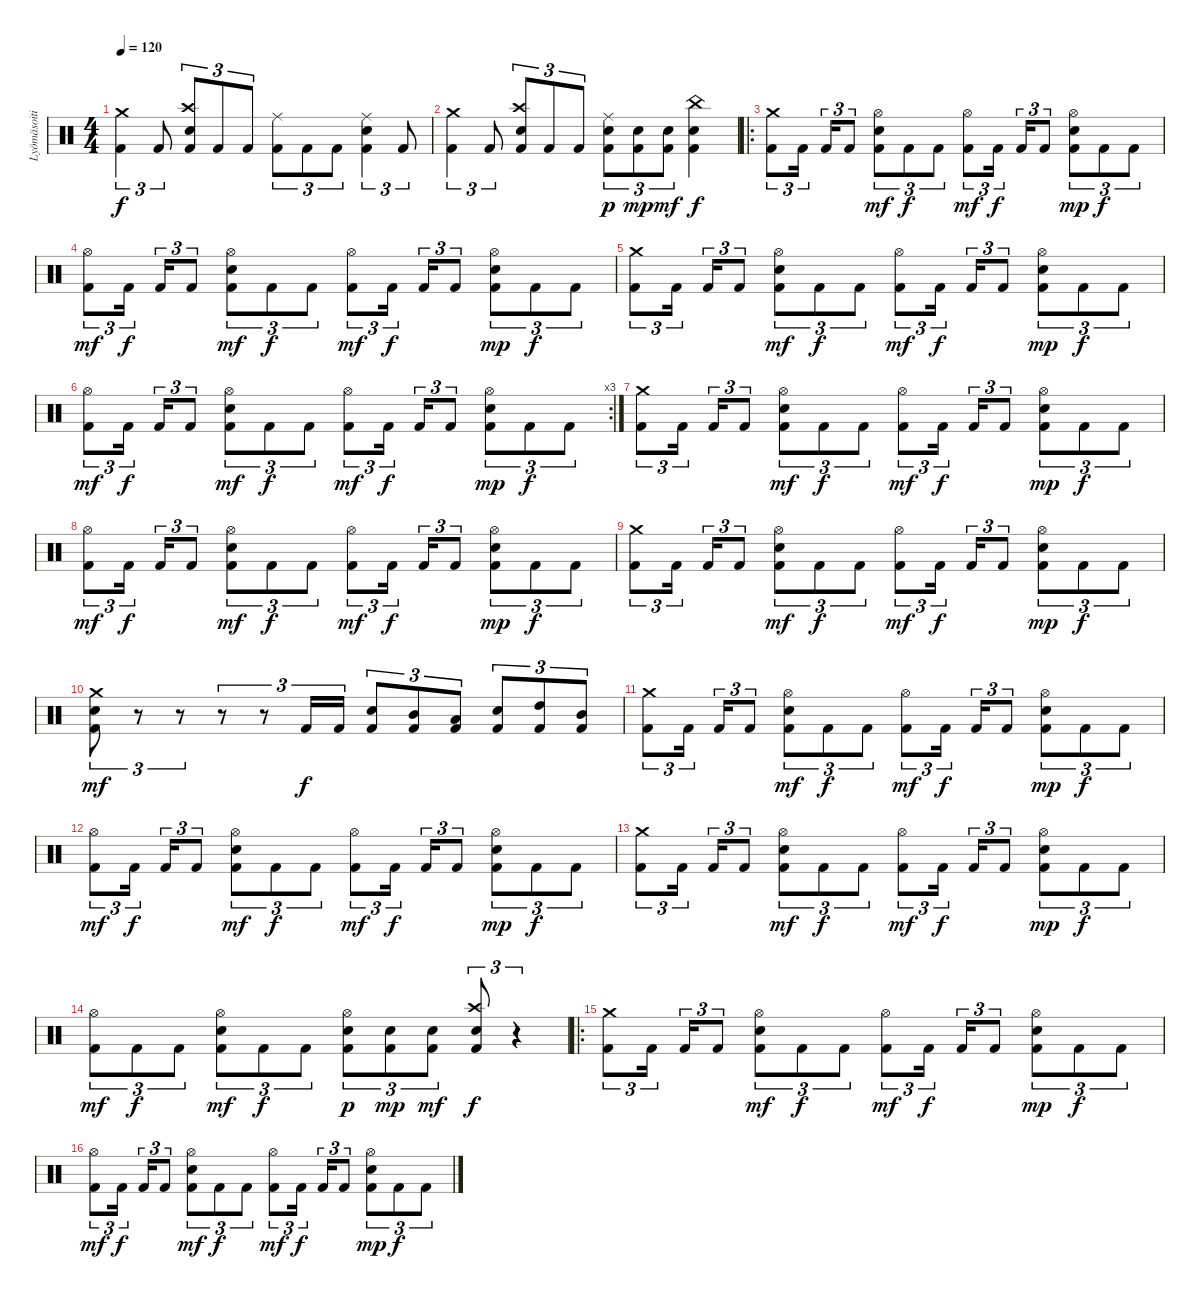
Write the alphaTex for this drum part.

\track ("Lyömäsoitin" "Lyömäsoiti") {instrument percussion}
\staff {score}
\articulation defaults
\ts (4 4)
\tempo 120
\clef neutral
\ks c
("Crash medium (hit)" "Kick (hit) 2").4{tu (3 2) dy f} "Kick (hit) 2".8{tu (3 2)} ("Crash high (hit)" "Snare (hit) 2" "Kick (hit) 2").8{tu (3 2)} "Kick (hit) 2".8{tu (3 2)} "Kick (hit) 2".8{tu (3 2)} ("Ride (middle)" "Kick (hit) 2").8{tu (3 2)} "Kick (hit) 2".8{tu (3 2)} "Kick (hit) 2".8{tu (3 2)} ("Ride (middle)" "Snare (hit) 2" "Kick (hit) 2").4{tu (3 2)} "Kick (hit) 2".8{tu (3 2)} |
("Crash medium (hit)" "Kick (hit) 2").4{tu (3 2)} "Kick (hit) 2".8{tu (3 2)} ("Crash high (hit)" "Snare (hit) 2" "Kick (hit) 2").8{tu (3 2)} "Kick (hit) 2".8{tu (3 2)} "Kick (hit) 2".8{tu (3 2)} ("Ride (middle)" "Snare (hit) 2" "Kick (hit) 2").8{tu (3 2) dy p} ("Snare (hit) 2" "Kick (hit) 2").8{tu (3 2) dy mp} ("Snare (hit) 2" "Kick (hit) 2").8{tu (3 2) dy mf} ("China (hit)" "Snare (hit) 2" "Kick (hit) 2").4{dy f} |
\ro
("Crash medium (hit)" "Kick (hit) 2").8{tu (3 2)} "Kick (hit) 2".16{tu (3 2)} "Kick (hit) 2".16{tu (3 2)} "Kick (hit) 2".8{tu (3 2)} ("Hi-Hat (open)" "Snare (hit) 2" "Kick (hit) 2").8{tu (3 2) dy mf} "Kick (hit) 2".8{tu (3 2) dy f} "Kick (hit) 2".8{tu (3 2)} ("Hi-Hat (open)" "Kick (hit) 2").8{tu (3 2) dy mf} "Kick (hit) 2".16{tu (3 2) dy f} "Kick (hit) 2".16{tu (3 2)} "Kick (hit) 2".8{tu (3 2)} ("Hi-Hat (open)" "Snare (hit) 2" "Kick (hit) 2").8{tu (3 2) dy mp} "Kick (hit) 2".8{tu (3 2) dy f} "Kick (hit) 2".8{tu (3 2)} |
("Hi-Hat (open)" "Kick (hit) 2").8{tu (3 2) dy mf} "Kick (hit) 2".16{tu (3 2) dy f} "Kick (hit) 2".16{tu (3 2)} "Kick (hit) 2".8{tu (3 2)} ("Hi-Hat (open)" "Snare (hit) 2" "Kick (hit) 2").8{tu (3 2) dy mf} "Kick (hit) 2".8{tu (3 2) dy f} "Kick (hit) 2".8{tu (3 2)} ("Hi-Hat (open)" "Kick (hit) 2").8{tu (3 2) dy mf} "Kick (hit) 2".16{tu (3 2) dy f} "Kick (hit) 2".16{tu (3 2)} "Kick (hit) 2".8{tu (3 2)} ("Hi-Hat (open)" "Snare (hit) 2" "Kick (hit) 2").8{tu (3 2) dy mp} "Kick (hit) 2".8{tu (3 2) dy f} "Kick (hit) 2".8{tu (3 2)} |
("Crash medium (hit)" "Kick (hit) 2").8{tu (3 2)} "Kick (hit) 2".16{tu (3 2)} "Kick (hit) 2".16{tu (3 2)} "Kick (hit) 2".8{tu (3 2)} ("Hi-Hat (open)" "Snare (hit) 2" "Kick (hit) 2").8{tu (3 2) dy mf} "Kick (hit) 2".8{tu (3 2) dy f} "Kick (hit) 2".8{tu (3 2)} ("Hi-Hat (open)" "Kick (hit) 2").8{tu (3 2) dy mf} "Kick (hit) 2".16{tu (3 2) dy f} "Kick (hit) 2".16{tu (3 2)} "Kick (hit) 2".8{tu (3 2)} ("Hi-Hat (open)" "Snare (hit) 2" "Kick (hit) 2").8{tu (3 2) dy mp} "Kick (hit) 2".8{tu (3 2) dy f} "Kick (hit) 2".8{tu (3 2)} |
\rc 3
("Hi-Hat (open)" "Kick (hit) 2").8{tu (3 2) dy mf} "Kick (hit) 2".16{tu (3 2) dy f} "Kick (hit) 2".16{tu (3 2)} "Kick (hit) 2".8{tu (3 2)} ("Hi-Hat (open)" "Snare (hit) 2" "Kick (hit) 2").8{tu (3 2) dy mf} "Kick (hit) 2".8{tu (3 2) dy f} "Kick (hit) 2".8{tu (3 2)} ("Hi-Hat (open)" "Kick (hit) 2").8{tu (3 2) dy mf} "Kick (hit) 2".16{tu (3 2) dy f} "Kick (hit) 2".16{tu (3 2)} "Kick (hit) 2".8{tu (3 2)} ("Hi-Hat (open)" "Snare (hit) 2" "Kick (hit) 2").8{tu (3 2) dy mp} "Kick (hit) 2".8{tu (3 2) dy f} "Kick (hit) 2".8{tu (3 2)} |
("Crash medium (hit)" "Kick (hit) 2").8{tu (3 2)} "Kick (hit) 2".16{tu (3 2)} "Kick (hit) 2".16{tu (3 2)} "Kick (hit) 2".8{tu (3 2)} ("Hi-Hat (open)" "Snare (hit) 2" "Kick (hit) 2").8{tu (3 2) dy mf} "Kick (hit) 2".8{tu (3 2) dy f} "Kick (hit) 2".8{tu (3 2)} ("Hi-Hat (open)" "Kick (hit) 2").8{tu (3 2) dy mf} "Kick (hit) 2".16{tu (3 2) dy f} "Kick (hit) 2".16{tu (3 2)} "Kick (hit) 2".8{tu (3 2)} ("Hi-Hat (open)" "Snare (hit) 2" "Kick (hit) 2").8{tu (3 2) dy mp} "Kick (hit) 2".8{tu (3 2) dy f} "Kick (hit) 2".8{tu (3 2)} |
("Hi-Hat (open)" "Kick (hit) 2").8{tu (3 2) dy mf} "Kick (hit) 2".16{tu (3 2) dy f} "Kick (hit) 2".16{tu (3 2)} "Kick (hit) 2".8{tu (3 2)} ("Hi-Hat (open)" "Snare (hit) 2" "Kick (hit) 2").8{tu (3 2) dy mf} "Kick (hit) 2".8{tu (3 2) dy f} "Kick (hit) 2".8{tu (3 2)} ("Hi-Hat (open)" "Kick (hit) 2").8{tu (3 2) dy mf} "Kick (hit) 2".16{tu (3 2) dy f} "Kick (hit) 2".16{tu (3 2)} "Kick (hit) 2".8{tu (3 2)} ("Hi-Hat (open)" "Snare (hit) 2" "Kick (hit) 2").8{tu (3 2) dy mp} "Kick (hit) 2".8{tu (3 2) dy f} "Kick (hit) 2".8{tu (3 2)} |
("Crash medium (hit)" "Kick (hit) 2").8{tu (3 2)} "Kick (hit) 2".16{tu (3 2)} "Kick (hit) 2".16{tu (3 2)} "Kick (hit) 2".8{tu (3 2)} ("Hi-Hat (open)" "Snare (hit) 2" "Kick (hit) 2").8{tu (3 2) dy mf} "Kick (hit) 2".8{tu (3 2) dy f} "Kick (hit) 2".8{tu (3 2)} ("Hi-Hat (open)" "Kick (hit) 2").8{tu (3 2) dy mf} "Kick (hit) 2".16{tu (3 2) dy f} "Kick (hit) 2".16{tu (3 2)} "Kick (hit) 2".8{tu (3 2)} ("Hi-Hat (open)" "Snare (hit) 2" "Kick (hit) 2").8{tu (3 2) dy mp} "Kick (hit) 2".8{tu (3 2) dy f} "Kick (hit) 2".8{tu (3 2)} |
("Crash medium (hit)" "Snare (hit) 2" "Kick (hit) 2").8{tu (3 2) dy mf} r.8{tu (3 2)} r.8{tu (3 2)} r.8{tu (3 2)} r.8{tu (3 2)} "Kick (hit) 2".16{tu (3 2) dy f} "Kick (hit) 2".16{tu (3 2)} ("Kick (hit) 2" "Snare (hit) 2").8{tu (3 2)} ("Kick (hit) 2" "Mid Tom (hit)").8{tu (3 2)} ("Kick (hit) 2" "Low Tom (hit)").8{tu (3 2)} ("Kick (hit) 2" "Snare (hit) 2").8{tu (3 2)} ("Kick (hit) 2" "High Tom (hit)").8{tu (3 2)} ("Kick (hit) 2" "Mid Tom (hit)").8{tu (3 2)} |
("Crash medium (hit)" "Kick (hit) 2").8{tu (3 2)} "Kick (hit) 2".16{tu (3 2)} "Kick (hit) 2".16{tu (3 2)} "Kick (hit) 2".8{tu (3 2)} ("Hi-Hat (open)" "Snare (hit) 2" "Kick (hit) 2").8{tu (3 2) dy mf} "Kick (hit) 2".8{tu (3 2) dy f} "Kick (hit) 2".8{tu (3 2)} ("Hi-Hat (open)" "Kick (hit) 2").8{tu (3 2) dy mf} "Kick (hit) 2".16{tu (3 2) dy f} "Kick (hit) 2".16{tu (3 2)} "Kick (hit) 2".8{tu (3 2)} ("Hi-Hat (open)" "Snare (hit) 2" "Kick (hit) 2").8{tu (3 2) dy mp} "Kick (hit) 2".8{tu (3 2) dy f} "Kick (hit) 2".8{tu (3 2)} |
("Hi-Hat (open)" "Kick (hit) 2").8{tu (3 2) dy mf} "Kick (hit) 2".16{tu (3 2) dy f} "Kick (hit) 2".16{tu (3 2)} "Kick (hit) 2".8{tu (3 2)} ("Hi-Hat (open)" "Snare (hit) 2" "Kick (hit) 2").8{tu (3 2) dy mf} "Kick (hit) 2".8{tu (3 2) dy f} "Kick (hit) 2".8{tu (3 2)} ("Hi-Hat (open)" "Kick (hit) 2").8{tu (3 2) dy mf} "Kick (hit) 2".16{tu (3 2) dy f} "Kick (hit) 2".16{tu (3 2)} "Kick (hit) 2".8{tu (3 2)} ("Hi-Hat (open)" "Snare (hit) 2" "Kick (hit) 2").8{tu (3 2) dy mp} "Kick (hit) 2".8{tu (3 2) dy f} "Kick (hit) 2".8{tu (3 2)} |
("Crash medium (hit)" "Kick (hit) 2").8{tu (3 2)} "Kick (hit) 2".16{tu (3 2)} "Kick (hit) 2".16{tu (3 2)} "Kick (hit) 2".8{tu (3 2)} ("Hi-Hat (open)" "Snare (hit) 2" "Kick (hit) 2").8{tu (3 2) dy mf} "Kick (hit) 2".8{tu (3 2) dy f} "Kick (hit) 2".8{tu (3 2)} ("Hi-Hat (open)" "Kick (hit) 2").8{tu (3 2) dy mf} "Kick (hit) 2".16{tu (3 2) dy f} "Kick (hit) 2".16{tu (3 2)} "Kick (hit) 2".8{tu (3 2)} ("Hi-Hat (open)" "Snare (hit) 2" "Kick (hit) 2").8{tu (3 2) dy mp} "Kick (hit) 2".8{tu (3 2) dy f} "Kick (hit) 2".8{tu (3 2)} |
("Hi-Hat (open)" "Kick (hit) 2").8{tu (3 2) dy mf} "Kick (hit) 2".8{tu (3 2) dy f} "Kick (hit) 2".8{tu (3 2)} ("Hi-Hat (open)" "Snare (hit) 2" "Kick (hit) 2").8{tu (3 2) dy mf} "Kick (hit) 2".8{tu (3 2) dy f} "Kick (hit) 2".8{tu (3 2)} ("Hi-Hat (open)" "Snare (hit) 2" "Kick (hit) 2").8{tu (3 2) dy p} ("Snare (hit) 2" "Kick (hit) 2").8{tu (3 2) dy mp} ("Snare (hit) 2" "Kick (hit) 2").8{tu (3 2) dy mf} ("Crash high (hit)" "Snare (hit) 2" "Kick (hit) 2").8{tu (3 2) dy f} r.4{tu (3 2)} |
\ro
("Crash medium (hit)" "Kick (hit) 2").8{tu (3 2)} "Kick (hit) 2".16{tu (3 2)} "Kick (hit) 2".16{tu (3 2)} "Kick (hit) 2".8{tu (3 2)} ("Hi-Hat (open)" "Snare (hit) 2" "Kick (hit) 2").8{tu (3 2) dy mf} "Kick (hit) 2".8{tu (3 2) dy f} "Kick (hit) 2".8{tu (3 2)} ("Hi-Hat (open)" "Kick (hit) 2").8{tu (3 2) dy mf} "Kick (hit) 2".16{tu (3 2) dy f} "Kick (hit) 2".16{tu (3 2)} "Kick (hit) 2".8{tu (3 2)} ("Hi-Hat (open)" "Snare (hit) 2" "Kick (hit) 2").8{tu (3 2) dy mp} "Kick (hit) 2".8{tu (3 2) dy f} "Kick (hit) 2".8{tu (3 2)} |
("Hi-Hat (open)" "Kick (hit) 2").8{tu (3 2) dy mf} "Kick (hit) 2".16{tu (3 2) dy f} "Kick (hit) 2".16{tu (3 2)} "Kick (hit) 2".8{tu (3 2)} ("Hi-Hat (open)" "Snare (hit) 2" "Kick (hit) 2").8{tu (3 2) dy mf} "Kick (hit) 2".8{tu (3 2) dy f} "Kick (hit) 2".8{tu (3 2)} ("Hi-Hat (open)" "Kick (hit) 2").8{tu (3 2) dy mf} "Kick (hit) 2".16{tu (3 2) dy f} "Kick (hit) 2".16{tu (3 2)} "Kick (hit) 2".8{tu (3 2)} ("Hi-Hat (open)" "Snare (hit) 2" "Kick (hit) 2").8{tu (3 2) dy mp} "Kick (hit) 2".8{tu (3 2) dy f} "Kick (hit) 2".8{tu (3 2)}
